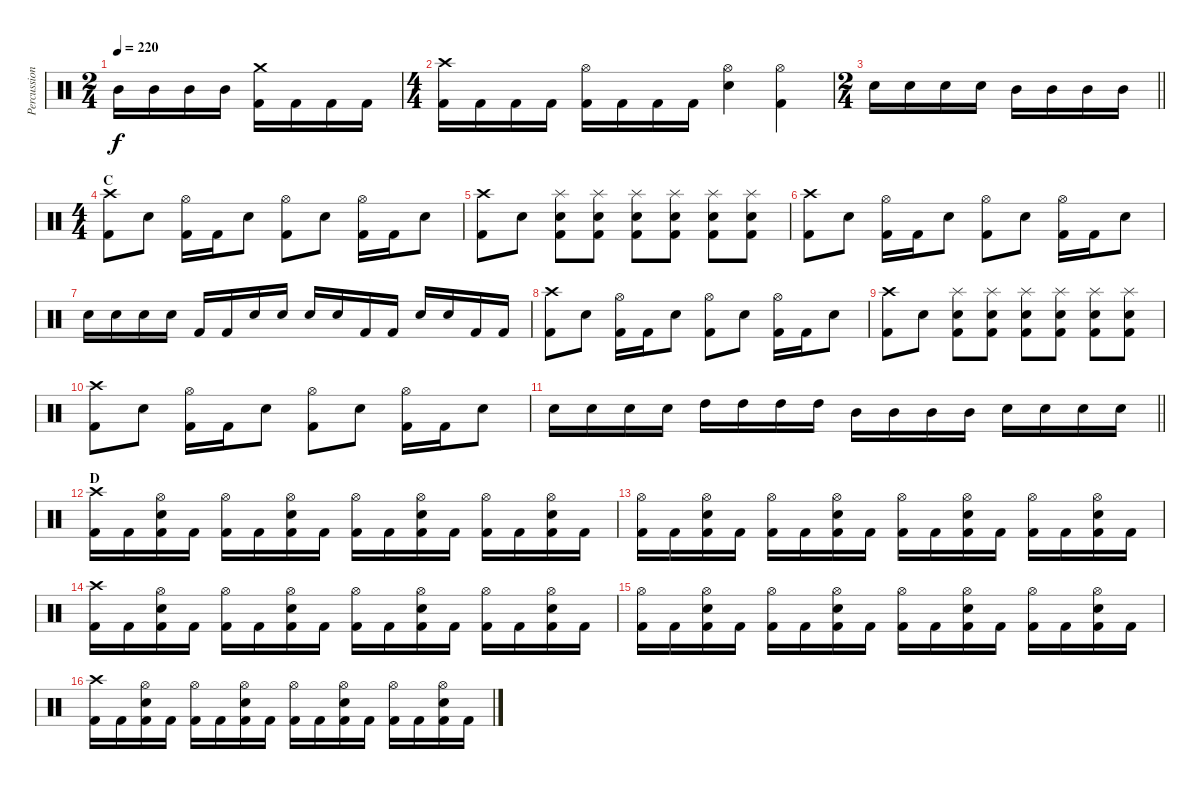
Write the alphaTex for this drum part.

\track ("Percussion" "Percussion") {instrument percussion}
\staff {score}
\articulation defaults
\ts (2 4)
\tempo 220
\clef neutral
\ks c "Mid Tom (hit)".16{dy f} "Mid Tom (hit)".16 "Mid Tom (hit)".16 "Mid Tom (hit)".16
("Crash medium (hit)" "Kick (hit) 2").16 "Kick (hit) 2".16 "Kick (hit) 2".16 "Kick (hit) 2".16 |
\ts (4 4)
("Crash high (hit)" "Kick (hit) 2").16 "Kick (hit) 2".16 "Kick (hit) 2".16 "Kick (hit) 2".16 ("Hi-Hat (open)" "Kick (hit) 2").16 "Kick (hit) 2".16 "Kick (hit) 2".16 "Kick (hit) 2".16 ("Hi-Hat (open)" "Electric Snare (hit)").4 ("Hi-Hat (open)" "Kick (hit) 2").4 |
\ts (2 4)
\barLineRight lightlight "Electric Snare (hit)".16 "Electric Snare (hit)".16 "Electric Snare (hit)".16 "Electric Snare (hit)".16 "Mid Tom (hit)".16 "Mid Tom (hit)".16 "Mid Tom (hit)".16 "Mid Tom (hit)".16
|
\ts (4 4)
\section ("" "C")
("Crash high (hit)" "Kick (hit) 2").8 "Electric Snare (hit)".8 ("Hi-Hat (open)" "Kick (hit) 2").16 "Kick (hit) 2".16 "Electric Snare (hit)".8 ("Hi-Hat (open)" "Kick (hit) 2").8 "Electric Snare (hit)".8 ("Hi-Hat (open)" "Kick (hit) 2").16 "Kick (hit) 2".16 "Electric Snare (hit)".8 |
("Crash high (hit)" "Kick (hit) 2").8 "Electric Snare (hit)".8 ("Splash (hit)" "Electric Snare (hit)" "Kick (hit) 2").8 ("Splash (hit)" "Electric Snare (hit)" "Kick (hit) 2").8 ("Splash (hit)" "Electric Snare (hit)" "Kick (hit) 2").8 ("Splash (hit)" "Electric Snare (hit)" "Kick (hit) 2").8 ("Splash (hit)" "Electric Snare (hit)" "Kick (hit) 2").8 ("Splash (hit)" "Electric Snare (hit)" "Kick (hit) 2").8 |
("Crash high (hit)" "Kick (hit) 2").8 "Electric Snare (hit)".8 ("Hi-Hat (open)" "Kick (hit) 2").16 "Kick (hit) 2".16 "Electric Snare (hit)".8 ("Hi-Hat (open)" "Kick (hit) 2").8 "Electric Snare (hit)".8 ("Hi-Hat (open)" "Kick (hit) 2").16 "Kick (hit) 2".16 "Electric Snare (hit)".8 |
"Electric Snare (hit)".16 "Electric Snare (hit)".16 "Electric Snare (hit)".16 "Electric Snare (hit)".16 "Kick (hit) 2".16 "Kick (hit) 2".16 "Electric Snare (hit)".16 "Electric Snare (hit)".16 "Electric Snare (hit)".16 "Electric Snare (hit)".16 "Kick (hit) 2".16 "Kick (hit) 2".16 "Electric Snare (hit)".16 "Electric Snare (hit)".16 "Kick (hit) 2".16 "Kick (hit) 2".16 |
("Crash high (hit)" "Kick (hit) 2").8 "Electric Snare (hit)".8 ("Hi-Hat (open)" "Kick (hit) 2").16 "Kick (hit) 2".16 "Electric Snare (hit)".8 ("Hi-Hat (open)" "Kick (hit) 2").8 "Electric Snare (hit)".8 ("Hi-Hat (open)" "Kick (hit) 2").16 "Kick (hit) 2".16 "Electric Snare (hit)".8 |
("Crash high (hit)" "Kick (hit) 2").8 "Electric Snare (hit)".8 ("Splash (hit)" "Electric Snare (hit)" "Kick (hit) 2").8 ("Splash (hit)" "Electric Snare (hit)" "Kick (hit) 2").8 ("Splash (hit)" "Electric Snare (hit)" "Kick (hit) 2").8 ("Splash (hit)" "Electric Snare (hit)" "Kick (hit) 2").8 ("Splash (hit)" "Electric Snare (hit)" "Kick (hit) 2").8 ("Splash (hit)" "Electric Snare (hit)" "Kick (hit) 2").8 |
("Crash high (hit)" "Kick (hit) 2").8 "Electric Snare (hit)".8 ("Hi-Hat (open)" "Kick (hit) 2").16 "Kick (hit) 2".16 "Electric Snare (hit)".8 ("Hi-Hat (open)" "Kick (hit) 2").8 "Electric Snare (hit)".8 ("Hi-Hat (open)" "Kick (hit) 2").16 "Kick (hit) 2".16 "Electric Snare (hit)".8 |
\barLineRight lightlight "Electric Snare (hit)".16 "Electric Snare (hit)".16 "Electric Snare (hit)".16 "Electric Snare (hit)".16 "High Tom (hit)".16 "High Tom (hit)".16 "High Tom (hit)".16 "High Tom (hit)".16 "Mid Tom (hit)".16 "Mid Tom (hit)".16 "Mid Tom (hit)".16 "Mid Tom (hit)".16 "Electric Snare (hit)".16 "Electric Snare (hit)".16 "Electric Snare (hit)".16 "Electric Snare (hit)".16
|
\section ("" "D")
("Crash high (hit)" "Kick (hit) 2").16 "Kick (hit) 2".16 ("Hi-Hat (open)" "Electric Snare (hit)" "Kick (hit) 2").16 "Kick (hit) 2".16 ("Hi-Hat (open)" "Kick (hit) 2").16 "Kick (hit) 2".16 ("Hi-Hat (open)" "Electric Snare (hit)" "Kick (hit) 2").16 "Kick (hit) 2".16 ("Hi-Hat (open)" "Kick (hit) 2").16 "Kick (hit) 2".16 ("Hi-Hat (open)" "Electric Snare (hit)" "Kick (hit) 2").16 "Kick (hit) 2".16 ("Hi-Hat (open)" "Kick (hit) 2").16 "Kick (hit) 2".16 ("Hi-Hat (open)" "Electric Snare (hit)" "Kick (hit) 2").16 "Kick (hit) 2".16 |
("Hi-Hat (open)" "Kick (hit) 2").16 "Kick (hit) 2".16 ("Hi-Hat (open)" "Electric Snare (hit)" "Kick (hit) 2").16 "Kick (hit) 2".16 ("Hi-Hat (open)" "Kick (hit) 2").16 "Kick (hit) 2".16 ("Hi-Hat (open)" "Electric Snare (hit)" "Kick (hit) 2").16 "Kick (hit) 2".16 ("Hi-Hat (open)" "Kick (hit) 2").16 "Kick (hit) 2".16 ("Hi-Hat (open)" "Electric Snare (hit)" "Kick (hit) 2").16 "Kick (hit) 2".16 ("Hi-Hat (open)" "Kick (hit) 2").16 "Kick (hit) 2".16 ("Hi-Hat (open)" "Electric Snare (hit)" "Kick (hit) 2").16 "Kick (hit) 2".16 |
("Crash high (hit)" "Kick (hit) 2").16 "Kick (hit) 2".16 ("Hi-Hat (open)" "Electric Snare (hit)" "Kick (hit) 2").16 "Kick (hit) 2".16 ("Hi-Hat (open)" "Kick (hit) 2").16 "Kick (hit) 2".16 ("Hi-Hat (open)" "Electric Snare (hit)" "Kick (hit) 2").16 "Kick (hit) 2".16 ("Hi-Hat (open)" "Kick (hit) 2").16 "Kick (hit) 2".16 ("Hi-Hat (open)" "Electric Snare (hit)" "Kick (hit) 2").16 "Kick (hit) 2".16 ("Hi-Hat (open)" "Kick (hit) 2").16 "Kick (hit) 2".16 ("Hi-Hat (open)" "Electric Snare (hit)" "Kick (hit) 2").16 "Kick (hit) 2".16 |
("Hi-Hat (open)" "Kick (hit) 2").16 "Kick (hit) 2".16 ("Hi-Hat (open)" "Electric Snare (hit)" "Kick (hit) 2").16 "Kick (hit) 2".16 ("Hi-Hat (open)" "Kick (hit) 2").16 "Kick (hit) 2".16 ("Hi-Hat (open)" "Electric Snare (hit)" "Kick (hit) 2").16 "Kick (hit) 2".16 ("Hi-Hat (open)" "Kick (hit) 2").16 "Kick (hit) 2".16 ("Hi-Hat (open)" "Electric Snare (hit)" "Kick (hit) 2").16 "Kick (hit) 2".16 ("Hi-Hat (open)" "Kick (hit) 2").16 "Kick (hit) 2".16 ("Hi-Hat (open)" "Electric Snare (hit)" "Kick (hit) 2").16 "Kick (hit) 2".16 |
("Crash high (hit)" "Kick (hit) 2").16 "Kick (hit) 2".16 ("Hi-Hat (open)" "Electric Snare (hit)" "Kick (hit) 2").16 "Kick (hit) 2".16 ("Hi-Hat (open)" "Kick (hit) 2").16 "Kick (hit) 2".16 ("Hi-Hat (open)" "Electric Snare (hit)" "Kick (hit) 2").16 "Kick (hit) 2".16 ("Hi-Hat (open)" "Kick (hit) 2").16 "Kick (hit) 2".16 ("Hi-Hat (open)" "Electric Snare (hit)" "Kick (hit) 2").16 "Kick (hit) 2".16 ("Hi-Hat (open)" "Kick (hit) 2").16 "Kick (hit) 2".16 ("Hi-Hat (open)" "Electric Snare (hit)" "Kick (hit) 2").16 "Kick (hit) 2".16
